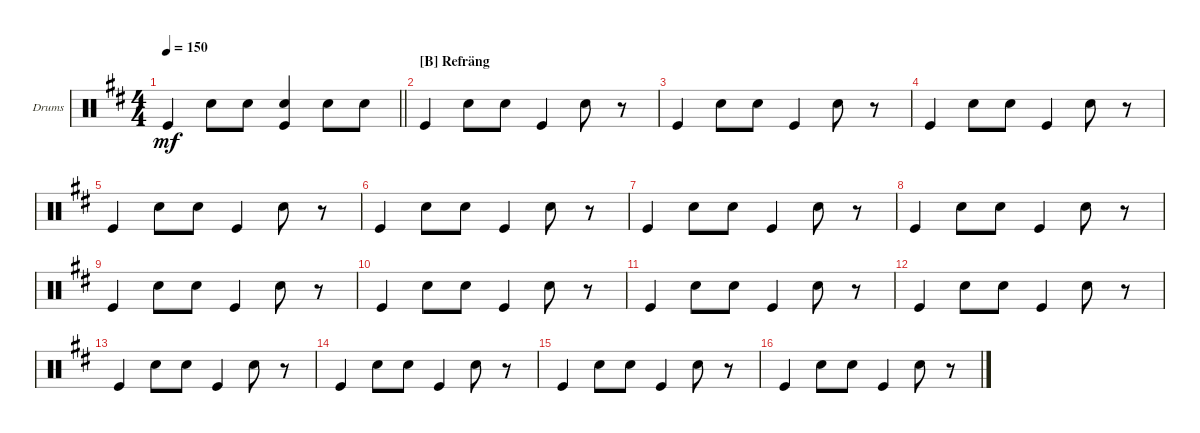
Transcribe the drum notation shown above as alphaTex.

\defaultSystemsLayout 4
\bracketExtendMode groupsimilarinstruments
\firstSystemTrackNameOrientation horizontal
\otherSystemsTrackNameOrientation horizontal
\track ("Drums" "Drums") {instrument percussion}
\staff {score}
\articulation defaults
\ts (4 4)
\tempo 150
\clef neutral
\scale
0.333333
\barLineRight lightlight
\ks d "Kick (hit)".4{dy mf} "Snare (hit) 2".8 "Snare (hit) 2".8
("Kick (hit)" "Snare (hit) 2").4 "Snare (hit) 2".8 "Snare (hit) 2".8 |
\section ("B" "Refräng")
\scale
0.333333 "Kick (hit)".4 "Snare (hit) 2".8 "Snare (hit) 2".8 "Kick (hit)".4 "Snare (hit) 2".8 r.8 |
\scale
0.333333 "Kick (hit)".4 "Snare (hit) 2".8 "Snare (hit) 2".8 "Kick (hit)".4 "Snare (hit) 2".8 r.8 |
\scale
0.333333 "Kick (hit)".4 "Snare (hit) 2".8 "Snare (hit) 2".8 "Kick (hit)".4 "Snare (hit) 2".8 r.8 |
\scale
0.333333 "Kick (hit)".4 "Snare (hit) 2".8 "Snare (hit) 2".8 "Kick (hit)".4 "Snare (hit) 2".8 r.8 |
\scale
0.333333 "Kick (hit)".4 "Snare (hit) 2".8 "Snare (hit) 2".8 "Kick (hit)".4 "Snare (hit) 2".8 r.8 |
\scale
0.333333 "Kick (hit)".4 "Snare (hit) 2".8 "Snare (hit) 2".8 "Kick (hit)".4 "Snare (hit) 2".8 r.8 |
\scale
0.333333 "Kick (hit)".4 "Snare (hit) 2".8 "Snare (hit) 2".8 "Kick (hit)".4 "Snare (hit) 2".8 r.8 |
\scale
0.333333 "Kick (hit)".4 "Snare (hit) 2".8 "Snare (hit) 2".8 "Kick (hit)".4 "Snare (hit) 2".8 r.8 |
\scale
0.333333 "Kick (hit)".4 "Snare (hit) 2".8 "Snare (hit) 2".8 "Kick (hit)".4 "Snare (hit) 2".8 r.8 |
\scale
0.333333 "Kick (hit)".4 "Snare (hit) 2".8 "Snare (hit) 2".8 "Kick (hit)".4 "Snare (hit) 2".8 r.8 |
\scale
0.333333 "Kick (hit)".4 "Snare (hit) 2".8 "Snare (hit) 2".8 "Kick (hit)".4 "Snare (hit) 2".8 r.8 |
\scale
0.333333 "Kick (hit)".4 "Snare (hit) 2".8 "Snare (hit) 2".8 "Kick (hit)".4 "Snare (hit) 2".8 r.8 |
\scale
0.333333 "Kick (hit)".4 "Snare (hit) 2".8 "Snare (hit) 2".8 "Kick (hit)".4 "Snare (hit) 2".8 r.8 |
\scale
0.333333 "Kick (hit)".4 "Snare (hit) 2".8 "Snare (hit) 2".8 "Kick (hit)".4 "Snare (hit) 2".8 r.8 |
\scale
0.333333 "Kick (hit)".4 "Snare (hit) 2".8 "Snare (hit) 2".8 "Kick (hit)".4 "Snare (hit) 2".8 r.8
